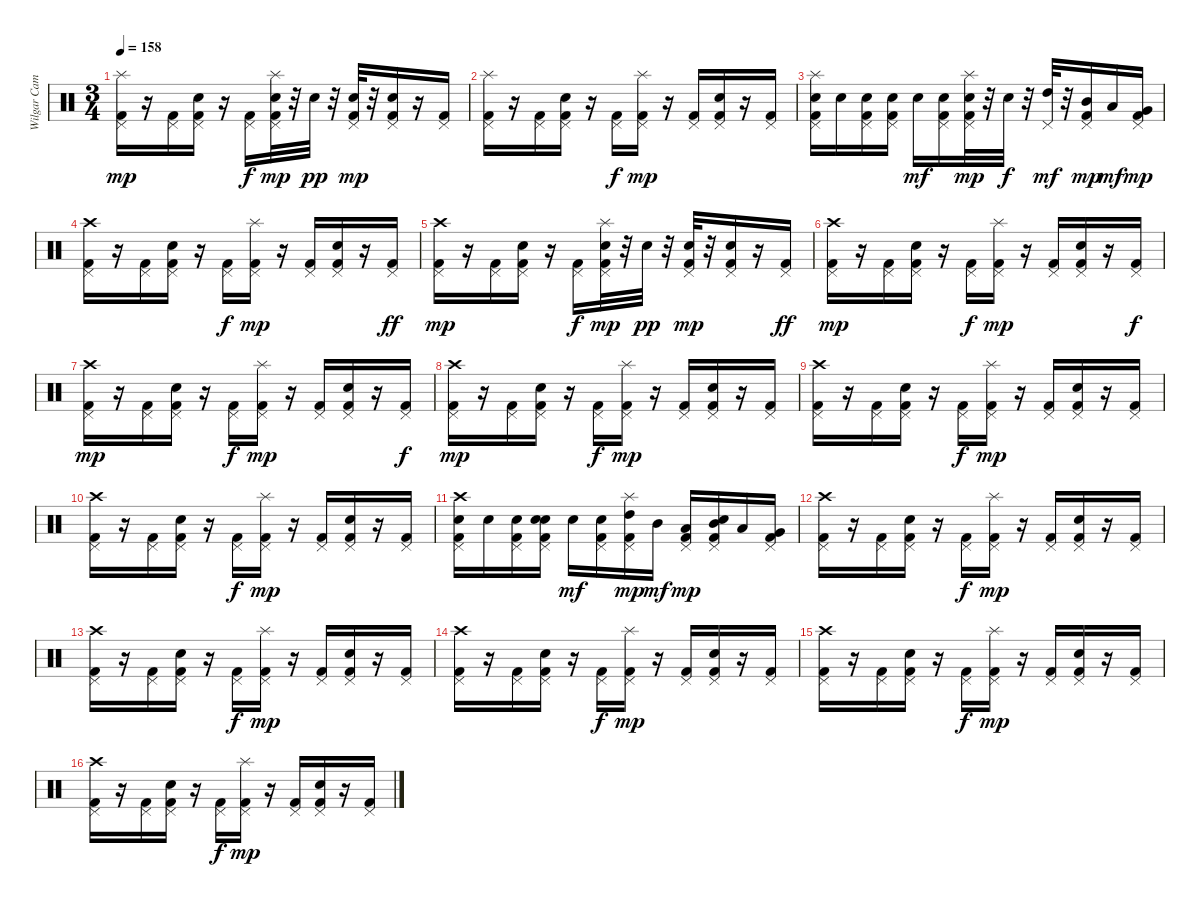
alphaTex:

\track ("Wilgar Campbell" "Wilgar Cam") {instrument percussion}
\staff {score}
\articulation defaults
\ts (3 4)
\tempo 158
\clef neutral
\ks c
("Splash (hit)" "Pedal Hi-Hat (hit)" "Kick (hit) 2").16{dy mp} r.16 ("Pedal Hi-Hat (hit)" "Kick (hit) 2").16 ("Snare (hit) 2" "Pedal Hi-Hat (hit)" "Kick (hit) 2").16 r.16 ("Pedal Hi-Hat (hit)" "Kick (hit) 2").16{dy f} ("Splash (hit)" "Pedal Hi-Hat (hit)" "Electric Snare (hit)" "Kick (hit) 2").32{dy mp} r.32 "Electric Snare (hit)".32{dy pp} r.32 ("Pedal Hi-Hat (hit)" "Electric Snare (hit)" "Kick (hit) 2").32{dy mp} r.32 ("Snare (hit) 2" "Pedal Hi-Hat (hit)" "Kick (hit) 2").16 r.16 ("Pedal Hi-Hat (hit)" "Kick (hit) 2").16 |
("Splash (hit)" "Pedal Hi-Hat (hit)" "Kick (hit) 2").16 r.16 ("Pedal Hi-Hat (hit)" "Kick (hit) 2").16 ("Snare (hit) 2" "Pedal Hi-Hat (hit)" "Kick (hit) 2").16 r.16 ("Pedal Hi-Hat (hit)" "Kick (hit) 2").16{dy f} ("Splash (hit)" "Pedal Hi-Hat (hit)" "Kick (hit) 2").16{dy mp} r.16 ("Pedal Hi-Hat (hit)" "Kick (hit) 2").16 ("Snare (hit) 2" "Pedal Hi-Hat (hit)" "Kick (hit) 2").16 r.16 ("Pedal Hi-Hat (hit)" "Kick (hit) 2").16 |
("Splash (hit)" "Pedal Hi-Hat (hit)" "Snare (hit) 2" "Kick (hit) 2").16 "Snare (hit) 2".16 ("Pedal Hi-Hat (hit)" "Snare (hit) 2" "Kick (hit) 2").16 ("Pedal Hi-Hat (hit)" "Snare (hit) 2" "Kick (hit) 2").16 "Electric Snare (hit)".16{dy mf} ("Pedal Hi-Hat (hit)" "Electric Snare (hit)" "Kick (hit) 2").16 ("Splash (hit)" "Pedal Hi-Hat (hit)" "Electric Snare (hit)" "Kick (hit) 2").32{dy mp} r.32 "Electric Snare (hit)".32{dy f} r.32 ("Pedal Hi-Hat (hit)" "High Tom (hit)").32{dy mf} r.32 ("Pedal Hi-Hat (hit)" "Mid Tom (hit)" "Kick (hit) 2").16{dy mp} "Low Tom (hit)".16{dy mf} ("Pedal Hi-Hat (hit)" "Very Low Tom (hit)" "Kick (hit) 2").16{dy mp} |
("Crash high (hit)" "Pedal Hi-Hat (hit)" "Kick (hit) 2").16 r.16 ("Pedal Hi-Hat (hit)" "Kick (hit) 2").16 ("Snare (hit) 2" "Pedal Hi-Hat (hit)" "Kick (hit) 2").16 r.16 ("Pedal Hi-Hat (hit)" "Kick (hit) 2").16{dy f} ("Splash (hit)" "Pedal Hi-Hat (hit)" "Kick (hit) 2").16{dy mp} r.16 ("Pedal Hi-Hat (hit)" "Kick (hit) 2").16 ("Snare (hit) 2" "Pedal Hi-Hat (hit)" "Kick (hit) 2").16 r.16 ("Pedal Hi-Hat (hit)" "Kick (hit) 2").16{dy ff} |
("Crash high (hit)" "Pedal Hi-Hat (hit)" "Kick (hit) 2").16{dy mp} r.16 ("Pedal Hi-Hat (hit)" "Kick (hit) 2").16 ("Snare (hit) 2" "Pedal Hi-Hat (hit)" "Kick (hit) 2").16 r.16 ("Pedal Hi-Hat (hit)" "Kick (hit) 2").16{dy f} ("Splash (hit)" "Pedal Hi-Hat (hit)" "Electric Snare (hit)" "Kick (hit) 2").32{dy mp} r.32 "Electric Snare (hit)".32{dy pp} r.32 ("Pedal Hi-Hat (hit)" "Electric Snare (hit)" "Kick (hit) 2").32{dy mp} r.32 ("Snare (hit) 2" "Pedal Hi-Hat (hit)" "Kick (hit) 2").16 r.16 ("Pedal Hi-Hat (hit)" "Kick (hit) 2").16{dy ff} |
("Crash high (hit)" "Pedal Hi-Hat (hit)" "Kick (hit) 2").16{dy mp} r.16 ("Pedal Hi-Hat (hit)" "Kick (hit) 2").16 ("Snare (hit) 2" "Pedal Hi-Hat (hit)" "Kick (hit) 2").16 r.16 ("Pedal Hi-Hat (hit)" "Kick (hit) 2").16{dy f} ("Splash (hit)" "Pedal Hi-Hat (hit)" "Kick (hit) 2").16{dy mp} r.16 ("Pedal Hi-Hat (hit)" "Kick (hit) 2").16 ("Snare (hit) 2" "Pedal Hi-Hat (hit)" "Kick (hit) 2").16 r.16 ("Pedal Hi-Hat (hit)" "Kick (hit) 2").16{dy f} |
("Crash high (hit)" "Pedal Hi-Hat (hit)" "Kick (hit) 2").16{dy mp} r.16 ("Pedal Hi-Hat (hit)" "Kick (hit) 2").16 ("Snare (hit) 2" "Pedal Hi-Hat (hit)" "Kick (hit) 2").16 r.16 ("Pedal Hi-Hat (hit)" "Kick (hit) 2").16{dy f} ("Splash (hit)" "Pedal Hi-Hat (hit)" "Kick (hit) 2").16{dy mp} r.16 ("Pedal Hi-Hat (hit)" "Kick (hit) 2").16 ("Snare (hit) 2" "Pedal Hi-Hat (hit)" "Kick (hit) 2").16 r.16 ("Pedal Hi-Hat (hit)" "Kick (hit) 2").16{dy f} |
("Crash high (hit)" "Pedal Hi-Hat (hit)" "Kick (hit) 2").16{dy mp} r.16 ("Pedal Hi-Hat (hit)" "Kick (hit) 2").16 ("Snare (hit) 2" "Pedal Hi-Hat (hit)" "Kick (hit) 2").16 r.16 ("Pedal Hi-Hat (hit)" "Kick (hit) 2").16{dy f} ("Splash (hit)" "Pedal Hi-Hat (hit)" "Kick (hit) 2").16{dy mp} r.16 ("Pedal Hi-Hat (hit)" "Kick (hit) 2").16 ("Snare (hit) 2" "Pedal Hi-Hat (hit)" "Kick (hit) 2").16 r.16 ("Pedal Hi-Hat (hit)" "Kick (hit) 2").16 |
("Crash high (hit)" "Pedal Hi-Hat (hit)" "Kick (hit) 2").16 r.16 ("Pedal Hi-Hat (hit)" "Kick (hit) 2").16 ("Snare (hit) 2" "Pedal Hi-Hat (hit)" "Kick (hit) 2").16 r.16 ("Pedal Hi-Hat (hit)" "Kick (hit) 2").16{dy f} ("Splash (hit)" "Pedal Hi-Hat (hit)" "Kick (hit) 2").16{dy mp} r.16 ("Pedal Hi-Hat (hit)" "Kick (hit) 2").16 ("Snare (hit) 2" "Pedal Hi-Hat (hit)" "Kick (hit) 2").16 r.16 ("Pedal Hi-Hat (hit)" "Kick (hit) 2").16 |
("Crash high (hit)" "Pedal Hi-Hat (hit)" "Kick (hit) 2").16 r.16 ("Pedal Hi-Hat (hit)" "Kick (hit) 2").16 ("Snare (hit) 2" "Pedal Hi-Hat (hit)" "Kick (hit) 2").16 r.16 ("Pedal Hi-Hat (hit)" "Kick (hit) 2").16{dy f} ("Splash (hit)" "Pedal Hi-Hat (hit)" "Kick (hit) 2").16{dy mp} r.16 ("Pedal Hi-Hat (hit)" "Kick (hit) 2").16 ("Snare (hit) 2" "Pedal Hi-Hat (hit)" "Kick (hit) 2").16 r.16 ("Pedal Hi-Hat (hit)" "Kick (hit) 2").16 |
("Crash high (hit)" "Pedal Hi-Hat (hit)" "Electric Snare (hit)" "Kick (hit) 2").16 "Electric Snare (hit)".16 ("Pedal Hi-Hat (hit)" "Electric Snare (hit)" "Kick (hit) 2").16 ("Snare (hit) 2" "Pedal Hi-Hat (hit)" "Electric Snare (hit)" "Kick (hit) 2").16 "Electric Snare (hit)".16{dy mf} ("Pedal Hi-Hat (hit)" "Electric Snare (hit)" "Kick (hit) 2").16 ("Splash (hit)" "Pedal Hi-Hat (hit)" "High Tom (hit)" "Kick (hit) 2").16{dy mp} "Mid Tom (hit)".16{dy mf} ("Pedal Hi-Hat (hit)" "Low Tom (hit)" "Kick (hit) 2").16{dy mp} ("Snare (hit) 2" "Pedal Hi-Hat (hit)" "Mid Tom (hit)" "Kick (hit) 2").16 "Low Tom (hit)".16 ("Pedal Hi-Hat (hit)" "Very Low Tom (hit)" "Kick (hit) 2").16 |
("Crash high (hit)" "Pedal Hi-Hat (hit)" "Kick (hit) 2").16 r.16 ("Pedal Hi-Hat (hit)" "Kick (hit) 2").16 ("Snare (hit) 2" "Pedal Hi-Hat (hit)" "Kick (hit) 2").16 r.16 ("Pedal Hi-Hat (hit)" "Kick (hit) 2").16{dy f} ("Splash (hit)" "Pedal Hi-Hat (hit)" "Kick (hit) 2").16{dy mp} r.16 ("Pedal Hi-Hat (hit)" "Kick (hit) 2").16 ("Snare (hit) 2" "Pedal Hi-Hat (hit)" "Kick (hit) 2").16 r.16 ("Pedal Hi-Hat (hit)" "Kick (hit) 2").16 |
("Crash high (hit)" "Pedal Hi-Hat (hit)" "Kick (hit) 2").16 r.16 ("Pedal Hi-Hat (hit)" "Kick (hit) 2").16 ("Snare (hit) 2" "Pedal Hi-Hat (hit)" "Kick (hit) 2").16 r.16 ("Pedal Hi-Hat (hit)" "Kick (hit) 2").16{dy f} ("Splash (hit)" "Pedal Hi-Hat (hit)" "Kick (hit) 2").16{dy mp} r.16 ("Pedal Hi-Hat (hit)" "Kick (hit) 2").16 ("Snare (hit) 2" "Pedal Hi-Hat (hit)" "Kick (hit) 2").16 r.16 ("Pedal Hi-Hat (hit)" "Kick (hit) 2").16 |
("Crash high (hit)" "Pedal Hi-Hat (hit)" "Kick (hit) 2").16 r.16 ("Pedal Hi-Hat (hit)" "Kick (hit) 2").16 ("Snare (hit) 2" "Pedal Hi-Hat (hit)" "Kick (hit) 2").16 r.16 ("Pedal Hi-Hat (hit)" "Kick (hit) 2").16{dy f} ("Splash (hit)" "Pedal Hi-Hat (hit)" "Kick (hit) 2").16{dy mp} r.16 ("Pedal Hi-Hat (hit)" "Kick (hit) 2").16 ("Snare (hit) 2" "Pedal Hi-Hat (hit)" "Kick (hit) 2").16 r.16 ("Pedal Hi-Hat (hit)" "Kick (hit) 2").16 |
("Crash high (hit)" "Pedal Hi-Hat (hit)" "Kick (hit) 2").16 r.16 ("Pedal Hi-Hat (hit)" "Kick (hit) 2").16 ("Snare (hit) 2" "Pedal Hi-Hat (hit)" "Kick (hit) 2").16 r.16 ("Pedal Hi-Hat (hit)" "Kick (hit) 2").16{dy f} ("Splash (hit)" "Pedal Hi-Hat (hit)" "Kick (hit) 2").16{dy mp} r.16 ("Pedal Hi-Hat (hit)" "Kick (hit) 2").16 ("Snare (hit) 2" "Pedal Hi-Hat (hit)" "Kick (hit) 2").16 r.16 ("Pedal Hi-Hat (hit)" "Kick (hit) 2").16 |
("Crash high (hit)" "Pedal Hi-Hat (hit)" "Kick (hit) 2").16 r.16 ("Pedal Hi-Hat (hit)" "Kick (hit) 2").16 ("Snare (hit) 2" "Pedal Hi-Hat (hit)" "Kick (hit) 2").16 r.16 ("Pedal Hi-Hat (hit)" "Kick (hit) 2").16{dy f} ("Splash (hit)" "Pedal Hi-Hat (hit)" "Kick (hit) 2").16{dy mp} r.16 ("Pedal Hi-Hat (hit)" "Kick (hit) 2").16 ("Snare (hit) 2" "Pedal Hi-Hat (hit)" "Kick (hit) 2").16 r.16 ("Pedal Hi-Hat (hit)" "Kick (hit) 2").16
